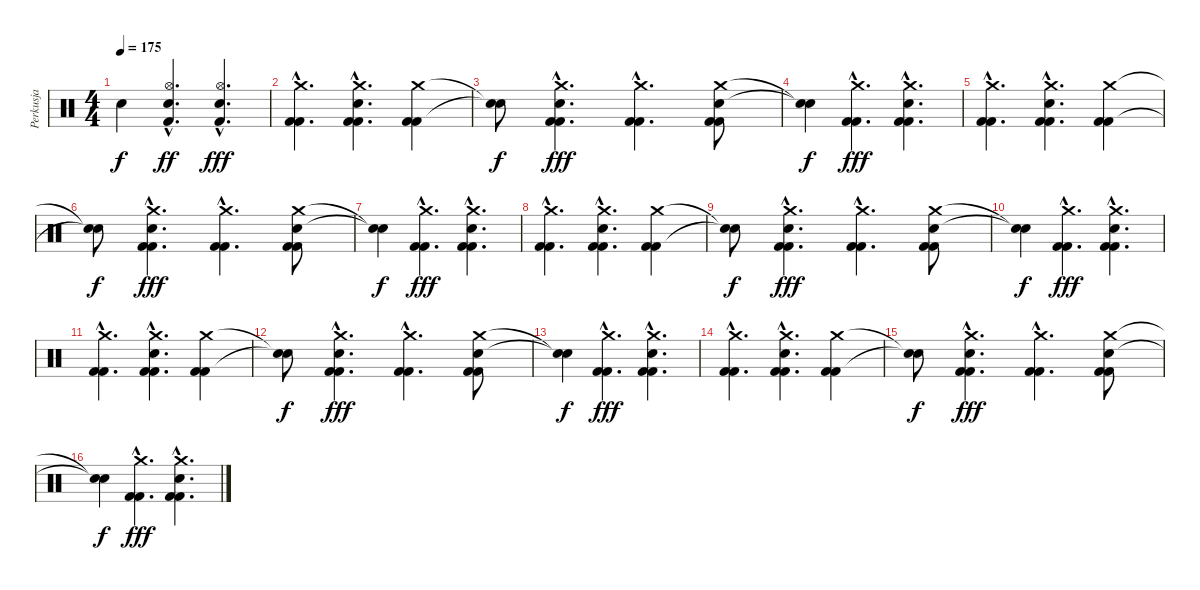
\track ("Perkusja" "Perkusja") {instrument percussion}
\staff {score}
\articulation defaults
\ts (4 4)
\tempo 175
\clef neutral
\ks c "Snare (hit)"{t}.4{dy f}
("Hi-Hat (open)"{hac} "Kick (hit) 2"{tr (36 16) hac} "Snare (hit) 2"{hac}).4{d dy ff} ("Hi-Hat (open)"{hac} "Kick (hit) 2"{tr (36 16) hac} "Snare (hit) 2"{hac}).4{d dy fff} |
("Crash medium (hit)"{hac} "Kick (hit) 2"{tr (36 16) hac} "Kick (hit) 2"{hac}).4{d} ("Crash medium (hit)"{hac} "Snare (hit) 2"{hac} "Kick (hit) 2"{tr (36 16) hac} "Kick (hit) 2"{hac}).4{d} ("Crash medium (hit)" "Kick (hit) 2"{tr (36 16)} "Kick (hit) 2").4 |
("Snare (hit)"{t} "Snare (hit)"{t}).8{dy f} ("Crash medium (hit)"{hac} "Snare (hit) 2"{hac} "Kick (hit) 2"{tr (36 16) hac} "Kick (hit) 2"{hac}).4{d dy fff} ("Crash medium (hit)"{hac} "Kick (hit) 2"{tr (36 16) hac} "Kick (hit) 2"{hac}).4{d} ("Crash medium (hit)" "Snare (hit) 2" "Kick (hit) 2"{tr (36 16)} "Kick (hit) 2").8 |
("Snare (hit)"{t} "Snare (hit)"{t}).4{dy f} ("Crash medium (hit)"{hac} "Kick (hit) 2"{tr (36 16) hac} "Kick (hit) 2"{hac}).4{d dy fff} ("Crash medium (hit)"{hac} "Snare (hit) 2"{hac} "Kick (hit) 2"{tr (36 16) hac} "Kick (hit) 2"{hac}).4{d} |
("Crash medium (hit)"{hac} "Kick (hit) 2"{tr (36 16) hac} "Kick (hit) 2"{hac}).4{d} ("Crash medium (hit)"{hac} "Snare (hit) 2"{hac} "Kick (hit) 2"{tr (36 16) hac} "Kick (hit) 2"{hac}).4{d} ("Crash medium (hit)" "Kick (hit) 2"{tr (36 16)} "Kick (hit) 2").4 |
("Snare (hit)"{t} "Snare (hit)"{t}).8{dy f} ("Crash medium (hit)"{hac} "Snare (hit) 2"{hac} "Kick (hit) 2"{tr (36 16) hac} "Kick (hit) 2"{hac}).4{d dy fff} ("Crash medium (hit)"{hac} "Kick (hit) 2"{tr (36 16) hac} "Kick (hit) 2"{hac}).4{d} ("Crash medium (hit)" "Snare (hit) 2" "Kick (hit) 2"{tr (36 16)} "Kick (hit) 2").8 |
("Snare (hit)"{t} "Snare (hit)"{t}).4{dy f} ("Crash medium (hit)"{hac} "Kick (hit) 2"{tr (36 16) hac} "Kick (hit) 2"{hac}).4{d dy fff} ("Crash medium (hit)"{hac} "Snare (hit) 2"{hac} "Kick (hit) 2"{tr (36 16) hac} "Kick (hit) 2"{hac}).4{d} |
("Crash medium (hit)"{hac} "Kick (hit) 2"{tr (36 16) hac} "Kick (hit) 2"{hac}).4{d} ("Crash medium (hit)"{hac} "Snare (hit) 2"{hac} "Kick (hit) 2"{tr (36 16) hac} "Kick (hit) 2"{hac}).4{d} ("Crash medium (hit)" "Kick (hit) 2"{tr (36 16)} "Kick (hit) 2").4 |
("Snare (hit)"{t} "Snare (hit)"{t}).8{dy f} ("Crash medium (hit)"{hac} "Snare (hit) 2"{hac} "Kick (hit) 2"{tr (36 16) hac} "Kick (hit) 2"{hac}).4{d dy fff} ("Crash medium (hit)"{hac} "Kick (hit) 2"{tr (36 16) hac} "Kick (hit) 2"{hac}).4{d} ("Crash medium (hit)" "Snare (hit) 2" "Kick (hit) 2"{tr (36 16)} "Kick (hit) 2").8 |
("Snare (hit)"{t} "Snare (hit)"{t}).4{dy f} ("Crash medium (hit)"{hac} "Kick (hit) 2"{tr (36 16) hac} "Kick (hit) 2"{hac}).4{d dy fff} ("Crash medium (hit)"{hac} "Snare (hit) 2"{hac} "Kick (hit) 2"{tr (36 16) hac} "Kick (hit) 2"{hac}).4{d} |
("Crash medium (hit)"{hac} "Kick (hit) 2"{tr (36 16) hac} "Kick (hit) 2"{hac}).4{d} ("Crash medium (hit)"{hac} "Snare (hit) 2"{hac} "Kick (hit) 2"{tr (36 16) hac} "Kick (hit) 2"{hac}).4{d} ("Crash medium (hit)" "Kick (hit) 2"{tr (36 16)} "Kick (hit) 2").4 |
("Snare (hit)"{t} "Snare (hit)"{t}).8{dy f} ("Crash medium (hit)"{hac} "Snare (hit) 2"{hac} "Kick (hit) 2"{tr (36 16) hac} "Kick (hit) 2"{hac}).4{d dy fff} ("Crash medium (hit)"{hac} "Kick (hit) 2"{tr (36 16) hac} "Kick (hit) 2"{hac}).4{d} ("Crash medium (hit)" "Snare (hit) 2" "Kick (hit) 2"{tr (36 16)} "Kick (hit) 2").8 |
("Snare (hit)"{t} "Snare (hit)"{t}).4{dy f} ("Crash medium (hit)"{hac} "Kick (hit) 2"{tr (36 16) hac} "Kick (hit) 2"{hac}).4{d dy fff} ("Crash medium (hit)"{hac} "Snare (hit) 2"{hac} "Kick (hit) 2"{tr (36 16) hac} "Kick (hit) 2"{hac}).4{d} |
("Crash medium (hit)"{hac} "Kick (hit) 2"{tr (36 16) hac} "Kick (hit) 2"{hac}).4{d} ("Crash medium (hit)"{hac} "Snare (hit) 2"{hac} "Kick (hit) 2"{tr (36 16) hac} "Kick (hit) 2"{hac}).4{d} ("Crash medium (hit)" "Kick (hit) 2"{tr (36 16)} "Kick (hit) 2").4 |
("Snare (hit)"{t} "Snare (hit)"{t}).8{dy f} ("Crash medium (hit)"{hac} "Snare (hit) 2"{hac} "Kick (hit) 2"{tr (36 16) hac} "Kick (hit) 2"{hac}).4{d dy fff} ("Crash medium (hit)"{hac} "Kick (hit) 2"{tr (36 16) hac} "Kick (hit) 2"{hac}).4{d} ("Crash medium (hit)" "Snare (hit) 2" "Kick (hit) 2"{tr (36 16)} "Kick (hit) 2").8 |
("Snare (hit)"{t} "Snare (hit)"{t}).4{dy f} ("Crash medium (hit)"{hac} "Kick (hit) 2"{tr (36 16) hac} "Kick (hit) 2"{hac}).4{d dy fff} ("Crash medium (hit)"{hac} "Snare (hit) 2"{hac} "Kick (hit) 2"{tr (36 16) hac} "Kick (hit) 2"{hac}).4{d}
